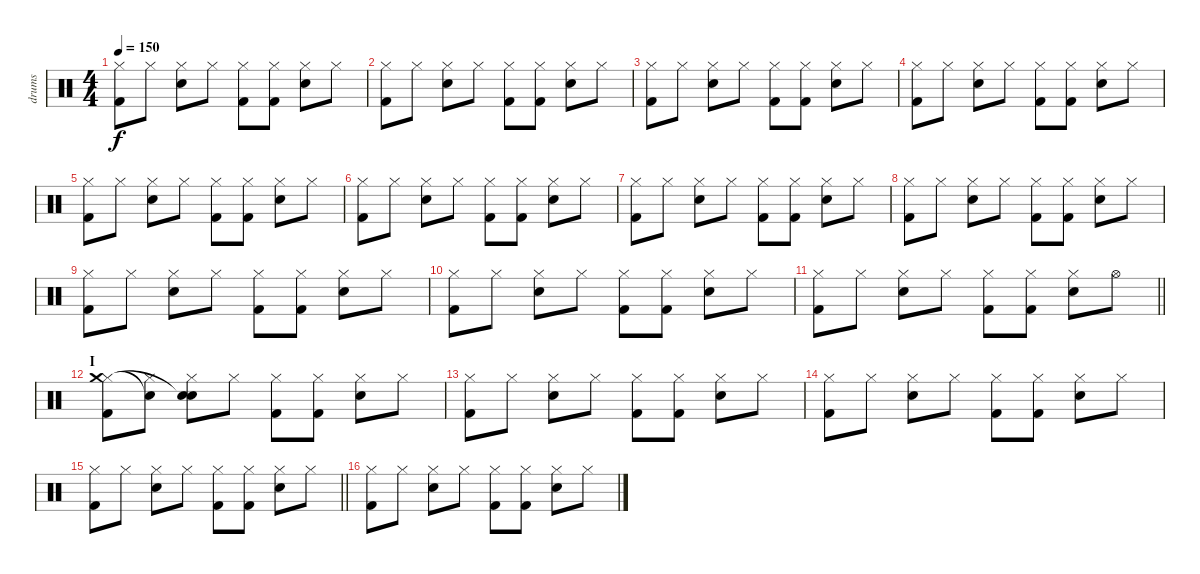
\track ("drums" "drums") {instrument percussion}
\staff {score}
\articulation defaults
\ts (4 4)
\tempo 150
\clef neutral
\ks c
("Kick (hit) 2" "Hi-Hat (closed)").8{dy f} "Hi-Hat (closed)".8 ("Snare (hit) 2" "Hi-Hat (closed)").8 "Hi-Hat (closed)".8 ("Kick (hit) 2" "Hi-Hat (closed)").8 ("Kick (hit) 2" "Hi-Hat (closed)").8 ("Snare (hit) 2" "Hi-Hat (closed)").8 "Hi-Hat (closed)".8 |
("Kick (hit) 2" "Hi-Hat (closed)").8 "Hi-Hat (closed)".8 ("Snare (hit) 2" "Hi-Hat (closed)").8 "Hi-Hat (closed)".8 ("Kick (hit) 2" "Hi-Hat (closed)").8 ("Kick (hit) 2" "Hi-Hat (closed)").8 ("Snare (hit) 2" "Hi-Hat (closed)").8 "Hi-Hat (closed)".8 |
("Kick (hit) 2" "Hi-Hat (closed)").8 "Hi-Hat (closed)".8 ("Snare (hit) 2" "Hi-Hat (closed)").8 "Hi-Hat (closed)".8 ("Kick (hit) 2" "Hi-Hat (closed)").8 ("Kick (hit) 2" "Hi-Hat (closed)").8 ("Snare (hit) 2" "Hi-Hat (closed)").8 "Hi-Hat (closed)".8 |
("Kick (hit) 2" "Hi-Hat (closed)").8 "Hi-Hat (closed)".8 ("Snare (hit) 2" "Hi-Hat (closed)").8 "Hi-Hat (closed)".8 ("Kick (hit) 2" "Hi-Hat (closed)").8 ("Kick (hit) 2" "Hi-Hat (closed)").8 ("Snare (hit) 2" "Hi-Hat (closed)").8 "Hi-Hat (closed)".8 |
("Kick (hit) 2" "Hi-Hat (closed)").8 "Hi-Hat (closed)".8 ("Snare (hit) 2" "Hi-Hat (closed)").8 "Hi-Hat (closed)".8 ("Kick (hit) 2" "Hi-Hat (closed)").8 ("Kick (hit) 2" "Hi-Hat (closed)").8 ("Snare (hit) 2" "Hi-Hat (closed)").8 "Hi-Hat (closed)".8 |
("Kick (hit) 2" "Hi-Hat (closed)").8 "Hi-Hat (closed)".8 ("Snare (hit) 2" "Hi-Hat (closed)").8 "Hi-Hat (closed)".8 ("Kick (hit) 2" "Hi-Hat (closed)").8 ("Kick (hit) 2" "Hi-Hat (closed)").8 ("Snare (hit) 2" "Hi-Hat (closed)").8 "Hi-Hat (closed)".8 |
("Kick (hit) 2" "Hi-Hat (closed)").8 "Hi-Hat (closed)".8 ("Snare (hit) 2" "Hi-Hat (closed)").8 "Hi-Hat (closed)".8 ("Kick (hit) 2" "Hi-Hat (closed)").8 ("Kick (hit) 2" "Hi-Hat (closed)").8 ("Snare (hit) 2" "Hi-Hat (closed)").8 "Hi-Hat (closed)".8 |
("Kick (hit) 2" "Hi-Hat (closed)").8 "Hi-Hat (closed)".8 ("Snare (hit) 2" "Hi-Hat (closed)").8 "Hi-Hat (closed)".8 ("Kick (hit) 2" "Hi-Hat (closed)").8 ("Kick (hit) 2" "Hi-Hat (closed)").8 ("Snare (hit) 2" "Hi-Hat (closed)").8 "Hi-Hat (closed)".8 |
("Kick (hit) 2" "Hi-Hat (closed)").8 "Hi-Hat (closed)".8 ("Snare (hit) 2" "Hi-Hat (closed)").8 "Hi-Hat (closed)".8 ("Kick (hit) 2" "Hi-Hat (closed)").8 ("Kick (hit) 2" "Hi-Hat (closed)").8 ("Snare (hit) 2" "Hi-Hat (closed)").8 "Hi-Hat (closed)".8 |
("Kick (hit) 2" "Hi-Hat (closed)").8 "Hi-Hat (closed)".8 ("Snare (hit) 2" "Hi-Hat (closed)").8 "Hi-Hat (closed)".8 ("Kick (hit) 2" "Hi-Hat (closed)").8 ("Kick (hit) 2" "Hi-Hat (closed)").8 ("Snare (hit) 2" "Hi-Hat (closed)").8 "Hi-Hat (closed)".8 |
\barLineRight lightlight
("Kick (hit) 2" "Hi-Hat (closed)").8 "Hi-Hat (closed)".8 ("Snare (hit) 2" "Hi-Hat (closed)").8 "Hi-Hat (closed)".8 ("Kick (hit) 2" "Hi-Hat (closed)").8 ("Kick (hit) 2" "Hi-Hat (closed)").8 ("Snare (hit) 2" "Hi-Hat (closed)").8 "Hi-Hat (open)".8 |
\section ("" "I")
("Kick (hit) 2" "Hi-Hat (closed)" "Crash medium (hit)").8 ("Hi-Hat (closed)" "Snare (hit)"{t}).8 ("Snare (hit) 2" "Hi-Hat (closed)" "Snare (hit)"{t}).8 "Hi-Hat (closed)".8 ("Kick (hit) 2" "Hi-Hat (closed)").8 ("Kick (hit) 2" "Hi-Hat (closed)").8 ("Snare (hit) 2" "Hi-Hat (closed)").8 "Hi-Hat (closed)".8 |
("Kick (hit) 2" "Hi-Hat (closed)").8 "Hi-Hat (closed)".8 ("Snare (hit) 2" "Hi-Hat (closed)").8 "Hi-Hat (closed)".8 ("Kick (hit) 2" "Hi-Hat (closed)").8 ("Kick (hit) 2" "Hi-Hat (closed)").8 ("Snare (hit) 2" "Hi-Hat (closed)").8 "Hi-Hat (closed)".8 |
("Kick (hit) 2" "Hi-Hat (closed)").8 "Hi-Hat (closed)".8 ("Snare (hit) 2" "Hi-Hat (closed)").8 "Hi-Hat (closed)".8 ("Kick (hit) 2" "Hi-Hat (closed)").8 ("Kick (hit) 2" "Hi-Hat (closed)").8 ("Snare (hit) 2" "Hi-Hat (closed)").8 "Hi-Hat (closed)".8 |
\barLineRight lightlight
("Kick (hit) 2" "Hi-Hat (closed)").8 "Hi-Hat (closed)".8 ("Snare (hit) 2" "Hi-Hat (closed)").8 "Hi-Hat (closed)".8 ("Kick (hit) 2" "Hi-Hat (closed)").8 ("Kick (hit) 2" "Hi-Hat (closed)").8 ("Snare (hit) 2" "Hi-Hat (closed)").8 "Hi-Hat (closed)".8 |
("Kick (hit) 2" "Hi-Hat (closed)").8 "Hi-Hat (closed)".8 ("Snare (hit) 2" "Hi-Hat (closed)").8 "Hi-Hat (closed)".8 ("Kick (hit) 2" "Hi-Hat (closed)").8 ("Kick (hit) 2" "Hi-Hat (closed)").8 ("Snare (hit) 2" "Hi-Hat (closed)").8 "Hi-Hat (closed)".8
